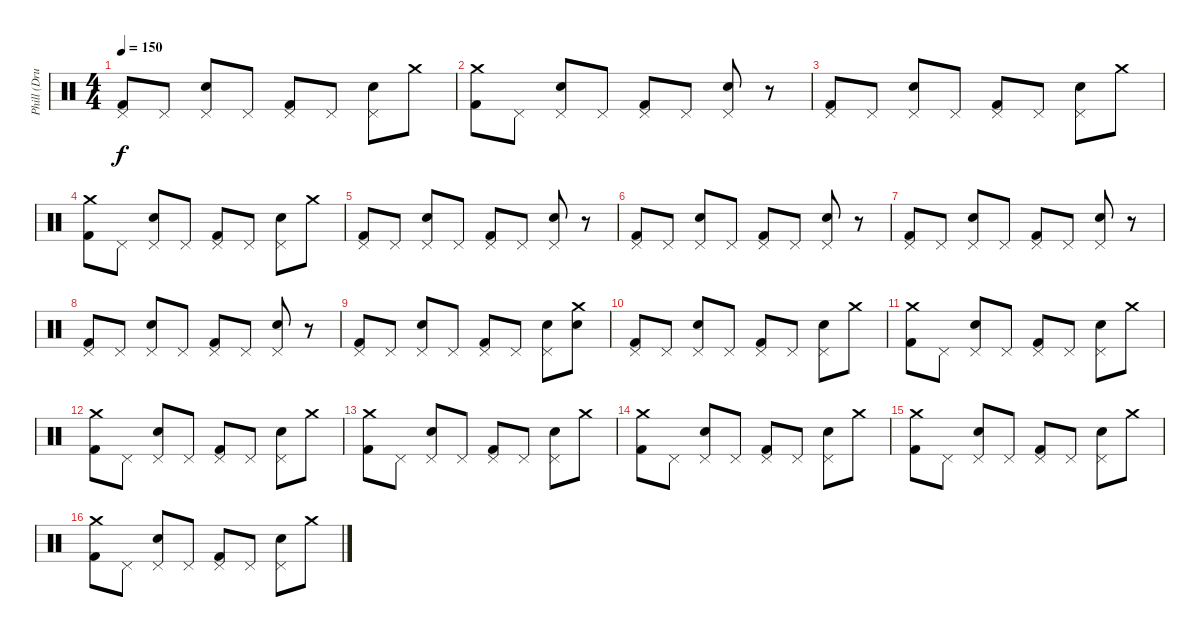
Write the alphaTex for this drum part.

\track ("Phill (Drums)" "Phill (Dru") {instrument percussion}
\staff {score}
\articulation defaults
\ts (4 4)
\tempo 150
\clef neutral
\ks c
("Kick (hit) 2" "Pedal Hi-Hat (hit)").8{dy f} "Pedal Hi-Hat (hit)".8 ("Snare (hit) 2" "Pedal Hi-Hat (hit)").8 "Pedal Hi-Hat (hit)".8 ("Kick (hit) 2" "Pedal Hi-Hat (hit)").8 "Pedal Hi-Hat (hit)".8 ("Snare (hit) 2" "Pedal Hi-Hat (hit)").8 "Crash medium (hit)".8 |
("Kick (hit) 2" "Crash medium (hit)").8 "Pedal Hi-Hat (hit)".8 ("Snare (hit) 2" "Pedal Hi-Hat (hit)").8 "Pedal Hi-Hat (hit)".8 ("Kick (hit) 2" "Pedal Hi-Hat (hit)").8 "Pedal Hi-Hat (hit)".8 ("Snare (hit) 2" "Pedal Hi-Hat (hit)").8 r.8 |
("Kick (hit) 2" "Pedal Hi-Hat (hit)").8 "Pedal Hi-Hat (hit)".8 ("Snare (hit) 2" "Pedal Hi-Hat (hit)").8 "Pedal Hi-Hat (hit)".8 ("Kick (hit) 2" "Pedal Hi-Hat (hit)").8 "Pedal Hi-Hat (hit)".8 ("Snare (hit) 2" "Pedal Hi-Hat (hit)").8 "Crash medium (hit)".8 |
("Kick (hit) 2" "Crash medium (hit)").8 "Pedal Hi-Hat (hit)".8 ("Snare (hit) 2" "Pedal Hi-Hat (hit)").8 "Pedal Hi-Hat (hit)".8 ("Kick (hit) 2" "Pedal Hi-Hat (hit)").8 "Pedal Hi-Hat (hit)".8 ("Snare (hit) 2" "Pedal Hi-Hat (hit)").8 "Crash medium (hit)".8 |
("Kick (hit) 2" "Pedal Hi-Hat (hit)").8 "Pedal Hi-Hat (hit)".8 ("Snare (hit) 2" "Pedal Hi-Hat (hit)").8 "Pedal Hi-Hat (hit)".8 ("Kick (hit) 2" "Pedal Hi-Hat (hit)").8 "Pedal Hi-Hat (hit)".8 ("Snare (hit) 2" "Pedal Hi-Hat (hit)").8 r.8 |
("Kick (hit) 2" "Pedal Hi-Hat (hit)").8 "Pedal Hi-Hat (hit)".8 ("Snare (hit) 2" "Pedal Hi-Hat (hit)").8 "Pedal Hi-Hat (hit)".8 ("Kick (hit) 2" "Pedal Hi-Hat (hit)").8 "Pedal Hi-Hat (hit)".8 ("Snare (hit) 2" "Pedal Hi-Hat (hit)").8 r.8 |
("Kick (hit) 2" "Pedal Hi-Hat (hit)").8 "Pedal Hi-Hat (hit)".8 ("Snare (hit) 2" "Pedal Hi-Hat (hit)").8 "Pedal Hi-Hat (hit)".8 ("Kick (hit) 2" "Pedal Hi-Hat (hit)").8 "Pedal Hi-Hat (hit)".8 ("Snare (hit) 2" "Pedal Hi-Hat (hit)").8 r.8 |
("Kick (hit) 2" "Pedal Hi-Hat (hit)").8 "Pedal Hi-Hat (hit)".8 ("Snare (hit) 2" "Pedal Hi-Hat (hit)").8 "Pedal Hi-Hat (hit)".8 ("Kick (hit) 2" "Pedal Hi-Hat (hit)").8 "Pedal Hi-Hat (hit)".8 ("Snare (hit) 2" "Pedal Hi-Hat (hit)").8 r.8 |
("Kick (hit) 2" "Pedal Hi-Hat (hit)").8 "Pedal Hi-Hat (hit)".8 ("Snare (hit) 2" "Pedal Hi-Hat (hit)").8 "Pedal Hi-Hat (hit)".8 ("Kick (hit) 2" "Pedal Hi-Hat (hit)").8 "Pedal Hi-Hat (hit)".8 ("Snare (hit) 2" "Pedal Hi-Hat (hit)").8 ("Snare (hit) 2" "Crash medium (hit)").8 |
("Kick (hit) 2" "Pedal Hi-Hat (hit)").8 "Pedal Hi-Hat (hit)".8 ("Snare (hit) 2" "Pedal Hi-Hat (hit)").8 "Pedal Hi-Hat (hit)".8 ("Kick (hit) 2" "Pedal Hi-Hat (hit)").8 "Pedal Hi-Hat (hit)".8 ("Snare (hit) 2" "Pedal Hi-Hat (hit)").8 "Crash medium (hit)".8 |
("Kick (hit) 2" "Crash medium (hit)").8 "Pedal Hi-Hat (hit)".8 ("Snare (hit) 2" "Pedal Hi-Hat (hit)").8 "Pedal Hi-Hat (hit)".8 ("Kick (hit) 2" "Pedal Hi-Hat (hit)").8 "Pedal Hi-Hat (hit)".8 ("Snare (hit) 2" "Pedal Hi-Hat (hit)").8 "Crash medium (hit)".8 |
("Kick (hit) 2" "Crash medium (hit)").8 "Pedal Hi-Hat (hit)".8 ("Snare (hit) 2" "Pedal Hi-Hat (hit)").8 "Pedal Hi-Hat (hit)".8 ("Kick (hit) 2" "Pedal Hi-Hat (hit)").8 "Pedal Hi-Hat (hit)".8 ("Snare (hit) 2" "Pedal Hi-Hat (hit)").8 "Crash medium (hit)".8 |
("Kick (hit) 2" "Crash medium (hit)").8 "Pedal Hi-Hat (hit)".8 ("Snare (hit) 2" "Pedal Hi-Hat (hit)").8 "Pedal Hi-Hat (hit)".8 ("Kick (hit) 2" "Pedal Hi-Hat (hit)").8 "Pedal Hi-Hat (hit)".8 ("Snare (hit) 2" "Pedal Hi-Hat (hit)").8 "Crash medium (hit)".8 |
("Kick (hit) 2" "Crash medium (hit)").8 "Pedal Hi-Hat (hit)".8 ("Snare (hit) 2" "Pedal Hi-Hat (hit)").8 "Pedal Hi-Hat (hit)".8 ("Kick (hit) 2" "Pedal Hi-Hat (hit)").8 "Pedal Hi-Hat (hit)".8 ("Snare (hit) 2" "Pedal Hi-Hat (hit)").8 "Crash medium (hit)".8 |
("Kick (hit) 2" "Crash medium (hit)").8 "Pedal Hi-Hat (hit)".8 ("Snare (hit) 2" "Pedal Hi-Hat (hit)").8 "Pedal Hi-Hat (hit)".8 ("Kick (hit) 2" "Pedal Hi-Hat (hit)").8 "Pedal Hi-Hat (hit)".8 ("Snare (hit) 2" "Pedal Hi-Hat (hit)").8 "Crash medium (hit)".8 |
("Kick (hit) 2" "Crash medium (hit)").8 "Pedal Hi-Hat (hit)".8 ("Snare (hit) 2" "Pedal Hi-Hat (hit)").8 "Pedal Hi-Hat (hit)".8 ("Kick (hit) 2" "Pedal Hi-Hat (hit)").8 "Pedal Hi-Hat (hit)".8 ("Snare (hit) 2" "Pedal Hi-Hat (hit)").8 "Crash medium (hit)".8
